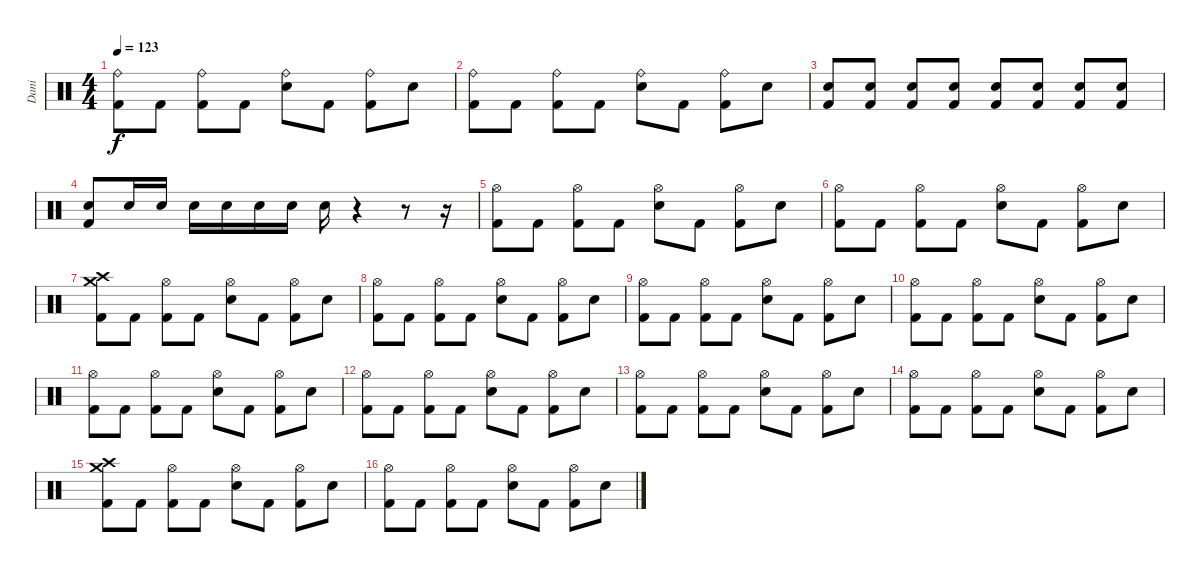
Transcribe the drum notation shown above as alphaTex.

\track ("Dani" "Dani") {instrument percussion}
\staff {score}
\articulation defaults
\ts (4 4)
\tempo 123
\clef neutral
\ks c
("Ride (bell)" "Kick (hit) 2").8{dy f} "Kick (hit) 2".8 ("Ride (bell)" "Kick (hit) 2").8 "Kick (hit) 2".8 ("Ride (bell)" "Electric Snare (hit)").8 "Kick (hit) 2".8 ("Ride (bell)" "Kick (hit) 2").8 "Electric Snare (hit)".8 |
("Ride (bell)" "Kick (hit) 2").8 "Kick (hit) 2".8 ("Ride (bell)" "Kick (hit) 2").8 "Kick (hit) 2".8 ("Ride (bell)" "Electric Snare (hit)").8 "Kick (hit) 2".8 ("Ride (bell)" "Kick (hit) 2").8 "Electric Snare (hit)".8 |
("Electric Snare (hit)" "Kick (hit) 2").8 ("Electric Snare (hit)" "Kick (hit) 2").8 ("Electric Snare (hit)" "Kick (hit) 2").8 ("Electric Snare (hit)" "Kick (hit) 2").8 ("Electric Snare (hit)" "Kick (hit) 2").8 ("Electric Snare (hit)" "Kick (hit) 2").8 ("Electric Snare (hit)" "Kick (hit) 2").8 ("Electric Snare (hit)" "Kick (hit) 2").8 |
("Electric Snare (hit)" "Kick (hit) 2").8 "Electric Snare (hit)".16 "Electric Snare (hit)".16 "Electric Snare (hit)".16 "Electric Snare (hit)".16 "Electric Snare (hit)".16 "Electric Snare (hit)".16 "Electric Snare (hit)".16 r.4 r.8 r.16 |
("Hi-Hat (open)" "Kick (hit) 2").8 "Kick (hit) 2".8 ("Hi-Hat (open)" "Kick (hit) 2").8 "Kick (hit) 2".8 ("Hi-Hat (open)" "Electric Snare (hit)").8 "Kick (hit) 2".8 ("Hi-Hat (open)" "Kick (hit) 2").8 "Electric Snare (hit)".8 |
("Hi-Hat (open)" "Kick (hit) 2").8 "Kick (hit) 2".8 ("Hi-Hat (open)" "Kick (hit) 2").8 "Kick (hit) 2".8 ("Hi-Hat (open)" "Electric Snare (hit)").8 "Kick (hit) 2".8 ("Hi-Hat (open)" "Kick (hit) 2").8 "Electric Snare (hit)".8 |
("Crash high (hit)" "Crash medium (hit)" "Kick (hit) 2").8 "Kick (hit) 2".8 ("Hi-Hat (open)" "Kick (hit) 2").8 "Kick (hit) 2".8 ("Hi-Hat (open)" "Electric Snare (hit)").8 "Kick (hit) 2".8 ("Hi-Hat (open)" "Kick (hit) 2").8 "Electric Snare (hit)".8 |
("Hi-Hat (open)" "Kick (hit) 2").8 "Kick (hit) 2".8 ("Hi-Hat (open)" "Kick (hit) 2").8 "Kick (hit) 2".8 ("Hi-Hat (open)" "Electric Snare (hit)").8 "Kick (hit) 2".8 ("Hi-Hat (open)" "Kick (hit) 2").8 "Electric Snare (hit)".8 |
("Hi-Hat (open)" "Kick (hit) 2").8 "Kick (hit) 2".8 ("Hi-Hat (open)" "Kick (hit) 2").8 "Kick (hit) 2".8 ("Hi-Hat (open)" "Electric Snare (hit)").8 "Kick (hit) 2".8 ("Hi-Hat (open)" "Kick (hit) 2").8 "Electric Snare (hit)".8 |
("Hi-Hat (open)" "Kick (hit) 2").8 "Kick (hit) 2".8 ("Hi-Hat (open)" "Kick (hit) 2").8 "Kick (hit) 2".8 ("Hi-Hat (open)" "Electric Snare (hit)").8 "Kick (hit) 2".8 ("Hi-Hat (open)" "Kick (hit) 2").8 "Electric Snare (hit)".8 |
("Hi-Hat (open)" "Kick (hit) 2").8 "Kick (hit) 2".8 ("Hi-Hat (open)" "Kick (hit) 2").8 "Kick (hit) 2".8 ("Hi-Hat (open)" "Electric Snare (hit)").8 "Kick (hit) 2".8 ("Hi-Hat (open)" "Kick (hit) 2").8 "Electric Snare (hit)".8 |
("Hi-Hat (open)" "Kick (hit) 2").8 "Kick (hit) 2".8 ("Hi-Hat (open)" "Kick (hit) 2").8 "Kick (hit) 2".8 ("Hi-Hat (open)" "Electric Snare (hit)").8 "Kick (hit) 2".8 ("Hi-Hat (open)" "Kick (hit) 2").8 "Electric Snare (hit)".8 |
("Hi-Hat (open)" "Kick (hit) 2").8 "Kick (hit) 2".8 ("Hi-Hat (open)" "Kick (hit) 2").8 "Kick (hit) 2".8 ("Hi-Hat (open)" "Electric Snare (hit)").8 "Kick (hit) 2".8 ("Hi-Hat (open)" "Kick (hit) 2").8 "Electric Snare (hit)".8 |
("Hi-Hat (open)" "Kick (hit) 2").8 "Kick (hit) 2".8 ("Hi-Hat (open)" "Kick (hit) 2").8 "Kick (hit) 2".8 ("Hi-Hat (open)" "Electric Snare (hit)").8 "Kick (hit) 2".8 ("Hi-Hat (open)" "Kick (hit) 2").8 "Electric Snare (hit)".8 |
("Crash high (hit)" "Crash medium (hit)" "Kick (hit) 2").8 "Kick (hit) 2".8 ("Hi-Hat (open)" "Kick (hit) 2").8 "Kick (hit) 2".8 ("Hi-Hat (open)" "Electric Snare (hit)").8 "Kick (hit) 2".8 ("Hi-Hat (open)" "Kick (hit) 2").8 "Electric Snare (hit)".8 |
("Hi-Hat (open)" "Kick (hit) 2").8 "Kick (hit) 2".8 ("Hi-Hat (open)" "Kick (hit) 2").8 "Kick (hit) 2".8 ("Hi-Hat (open)" "Electric Snare (hit)").8 "Kick (hit) 2".8 ("Hi-Hat (open)" "Kick (hit) 2").8 "Electric Snare (hit)".8
